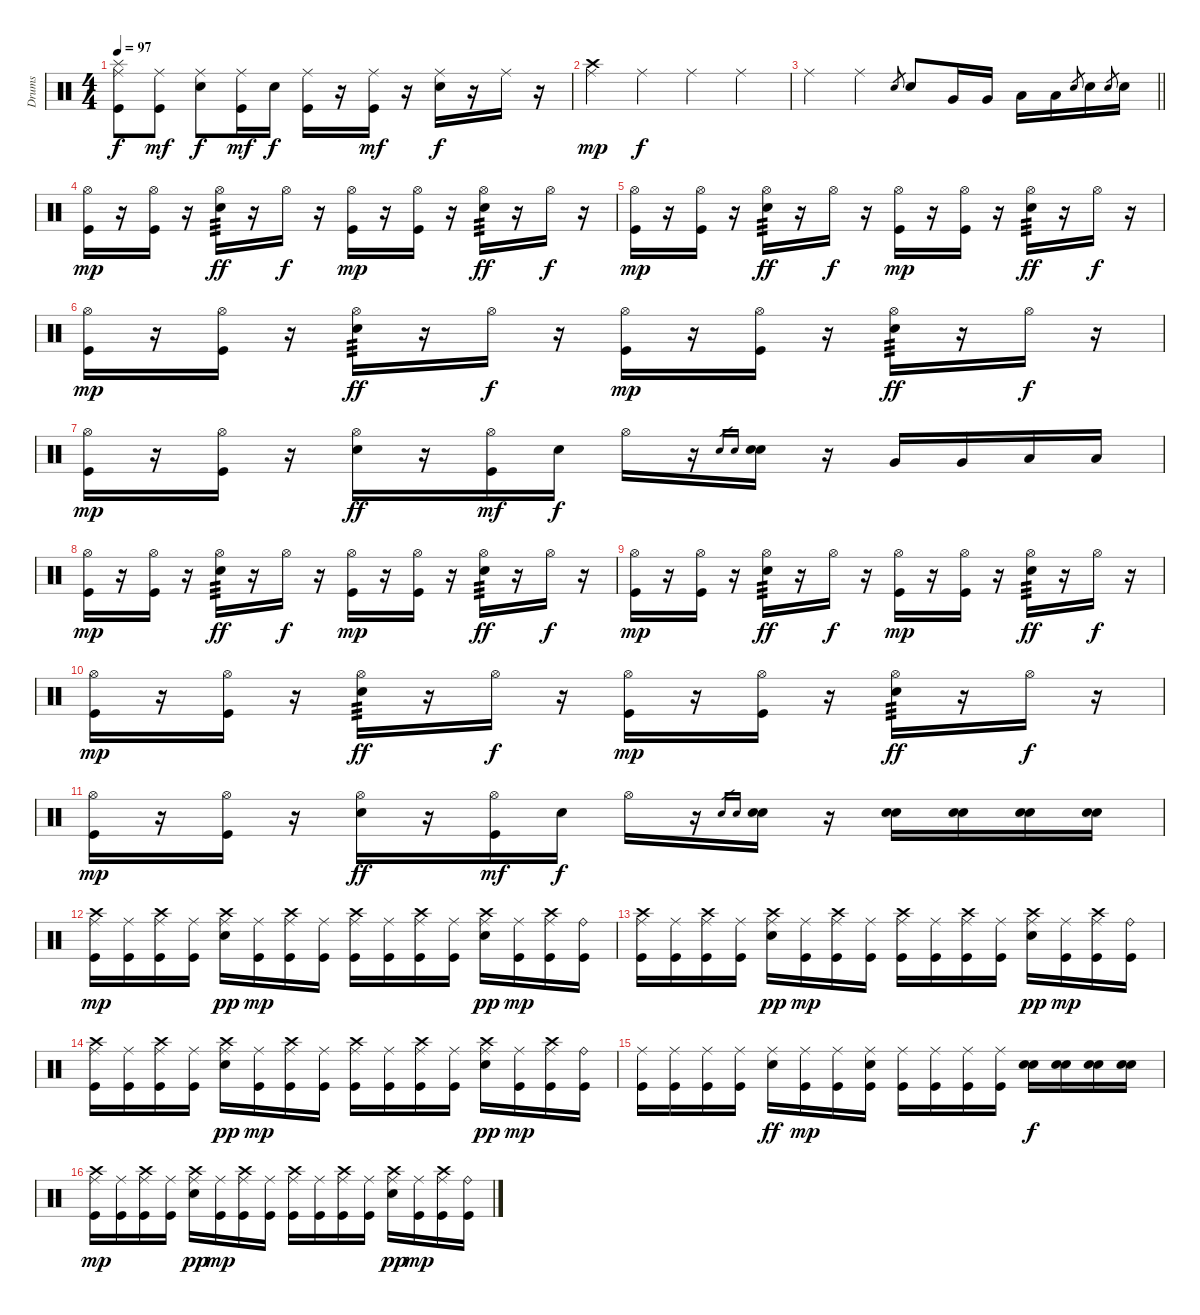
\track ("Drums" "Drums") {instrument percussion}
\staff {score}
\articulation defaults
\ts (4 4)
\tempo 97
\clef neutral
\ks c
("Ride (middle)" "Splash (hit)" "Kick (hit)").8{dy f} ("Ride (middle)" "Kick (hit)").8{dy mf} ("Ride (middle)" "Electric Snare (hit)").8{dy f} ("Ride (middle)" "Kick (hit)").16{dy mf} "Electric Snare (hit)".16{dy f} ("Ride (middle)" "Kick (hit)").16 r.16 ("Ride (middle)" "Kick (hit)").16{dy mf} r.16 ("Ride (middle)" "Electric Snare (hit)").16{dy f} r.16 "Ride (middle)".16 r.16 |
("Crash high (hit)" "Ride (middle)").4{dy mp} "Ride (middle)".4{dy f} "Ride (middle)".4 "Ride (middle)".4 |
\barLineRight lightlight "Ride (middle)".4 "Ride (middle)".4 "Electric Snare (hit)".8{gr} "Electric Snare (hit)".8 "Very Low Tom (hit)".16 "Very Low Tom (hit)".16 "Low Tom (hit)".16 "Low Tom (hit)".16 "Electric Snare (hit)".8{gr} "Electric Snare (hit)".16 "Electric Snare (hit)".8{gr} "Electric Snare (hit)".16
|
("Hi-Hat (open)" "Kick (hit)").16{dy mp} r.16 ("Hi-Hat (open)" "Kick (hit)").16 r.16 ("Hi-Hat (open)" "Electric Snare (hit)").16{tp 3 dy ff} r.16 "Hi-Hat (open)".16{dy f} r.16 ("Hi-Hat (open)" "Kick (hit)").16{dy mp} r.16 ("Hi-Hat (open)" "Kick (hit)").16 r.16 ("Hi-Hat (open)" "Electric Snare (hit)").16{tp 3 dy ff} r.16 "Hi-Hat (open)".16{dy f} r.16 |
("Hi-Hat (open)" "Kick (hit)").16{dy mp} r.16 ("Hi-Hat (open)" "Kick (hit)").16 r.16 ("Hi-Hat (open)" "Electric Snare (hit)").16{tp 3 dy ff} r.16 "Hi-Hat (open)".16{dy f} r.16 ("Hi-Hat (open)" "Kick (hit)").16{dy mp} r.16 ("Hi-Hat (open)" "Kick (hit)").16 r.16 ("Hi-Hat (open)" "Electric Snare (hit)").16{tp 3 dy ff} r.16 "Hi-Hat (open)".16{dy f} r.16 |
("Hi-Hat (open)" "Kick (hit)").16{dy mp} r.16 ("Hi-Hat (open)" "Kick (hit)").16 r.16 ("Hi-Hat (open)" "Electric Snare (hit)").16{tp 3 dy ff} r.16 "Hi-Hat (open)".16{dy f} r.16 ("Hi-Hat (open)" "Kick (hit)").16{dy mp} r.16 ("Hi-Hat (open)" "Kick (hit)").16 r.16 ("Hi-Hat (open)" "Electric Snare (hit)").16{tp 3 dy ff} r.16 "Hi-Hat (open)".16{dy f} r.16 |
("Hi-Hat (open)" "Kick (hit)").16{dy mp} r.16 ("Hi-Hat (open)" "Kick (hit)").16 r.16 ("Hi-Hat (open)" "Electric Snare (hit)").16{dy ff} r.16 ("Hi-Hat (open)" "Kick (hit)").16{dy mf} "Electric Snare (hit)".16{dy f} "Hi-Hat (open)".16 r.16 "Electric Snare (hit)".16{gr} "Electric Snare (hit)".16{gr} ("Electric Snare (hit)" "Electric Snare (hit)").16 r.16 "Very Low Tom (hit)".16 "Very Low Tom (hit)".16 "Low Tom (hit)".16 "Low Tom (hit)".16 |
("Hi-Hat (open)" "Kick (hit)").16{dy mp} r.16 ("Hi-Hat (open)" "Kick (hit)").16 r.16 ("Hi-Hat (open)" "Electric Snare (hit)").16{tp 3 dy ff} r.16 "Hi-Hat (open)".16{dy f} r.16 ("Hi-Hat (open)" "Kick (hit)").16{dy mp} r.16 ("Hi-Hat (open)" "Kick (hit)").16 r.16 ("Hi-Hat (open)" "Electric Snare (hit)").16{tp 3 dy ff} r.16 "Hi-Hat (open)".16{dy f} r.16 |
("Hi-Hat (open)" "Kick (hit)").16{dy mp} r.16 ("Hi-Hat (open)" "Kick (hit)").16 r.16 ("Hi-Hat (open)" "Electric Snare (hit)").16{tp 3 dy ff} r.16 "Hi-Hat (open)".16{dy f} r.16 ("Hi-Hat (open)" "Kick (hit)").16{dy mp} r.16 ("Hi-Hat (open)" "Kick (hit)").16 r.16 ("Hi-Hat (open)" "Electric Snare (hit)").16{tp 3 dy ff} r.16 "Hi-Hat (open)".16{dy f} r.16 |
("Hi-Hat (open)" "Kick (hit)").16{dy mp} r.16 ("Hi-Hat (open)" "Kick (hit)").16 r.16 ("Hi-Hat (open)" "Electric Snare (hit)").16{tp 3 dy ff} r.16 "Hi-Hat (open)".16{dy f} r.16 ("Hi-Hat (open)" "Kick (hit)").16{dy mp} r.16 ("Hi-Hat (open)" "Kick (hit)").16 r.16 ("Hi-Hat (open)" "Electric Snare (hit)").16{tp 3 dy ff} r.16 "Hi-Hat (open)".16{dy f} r.16 |
("Hi-Hat (open)" "Kick (hit)").16{dy mp} r.16 ("Hi-Hat (open)" "Kick (hit)").16 r.16 ("Hi-Hat (open)" "Electric Snare (hit)").16{dy ff} r.16 ("Hi-Hat (open)" "Kick (hit)").16{dy mf} "Electric Snare (hit)".16{dy f} "Hi-Hat (open)".16 r.16 "Electric Snare (hit)".16{gr} "Electric Snare (hit)".16{gr} ("Electric Snare (hit)" "Electric Snare (hit)").16 r.16 ("Electric Snare (hit)" "Electric Snare (hit)").16 ("Electric Snare (hit)" "Electric Snare (hit)").16 ("Electric Snare (hit)" "Electric Snare (hit)").16 ("Electric Snare (hit)" "Electric Snare (hit)").16 |
("Ride (middle)" "Crash high (hit)" "Kick (hit)").16{dy mp} ("Ride (middle)" "Kick (hit)").16 ("Ride (middle)" "Crash high (hit)" "Kick (hit)").16 ("Ride (middle)" "Kick (hit)").16 ("Ride (middle)" "Electric Snare (hit)" "Crash high (hit)").16{dy pp} ("Ride (middle)" "Kick (hit)").16{dy mp} ("Ride (middle)" "Crash high (hit)" "Kick (hit)").16 ("Ride (middle)" "Kick (hit)").16 ("Ride (middle)" "Crash high (hit)" "Kick (hit)").16 ("Ride (middle)" "Kick (hit)").16 ("Ride (middle)" "Crash high (hit)" "Kick (hit)").16 ("Ride (middle)" "Kick (hit)").16 ("Ride (middle)" "Electric Snare (hit)" "Crash high (hit)").16{dy pp} ("Ride (middle)" "Kick (hit)").16{dy mp} ("Ride (middle)" "Crash high (hit)" "Kick (hit)").16 ("Ride (bell)" "Kick (hit)").16 |
("Ride (middle)" "Crash high (hit)" "Kick (hit)").16 ("Ride (middle)" "Kick (hit)").16 ("Ride (middle)" "Crash high (hit)" "Kick (hit)").16 ("Ride (middle)" "Kick (hit)").16 ("Ride (middle)" "Electric Snare (hit)" "Crash high (hit)").16{dy pp} ("Ride (middle)" "Kick (hit)").16{dy mp} ("Ride (middle)" "Crash high (hit)" "Kick (hit)").16 ("Ride (middle)" "Kick (hit)").16 ("Ride (middle)" "Crash high (hit)" "Kick (hit)").16 ("Ride (middle)" "Kick (hit)").16 ("Ride (middle)" "Crash high (hit)" "Kick (hit)").16 ("Ride (middle)" "Kick (hit)").16 ("Ride (middle)" "Electric Snare (hit)" "Crash high (hit)").16{dy pp} ("Ride (middle)" "Kick (hit)").16{dy mp} ("Ride (middle)" "Crash high (hit)" "Kick (hit)").16 ("Ride (bell)" "Kick (hit)").16 |
("Ride (middle)" "Crash high (hit)" "Kick (hit)").16 ("Ride (middle)" "Kick (hit)").16 ("Ride (middle)" "Crash high (hit)" "Kick (hit)").16 ("Ride (middle)" "Kick (hit)").16 ("Ride (middle)" "Electric Snare (hit)" "Crash high (hit)").16{dy pp} ("Ride (middle)" "Kick (hit)").16{dy mp} ("Ride (middle)" "Crash high (hit)" "Kick (hit)").16 ("Ride (middle)" "Kick (hit)").16 ("Ride (middle)" "Crash high (hit)" "Kick (hit)").16 ("Ride (middle)" "Kick (hit)").16 ("Ride (middle)" "Crash high (hit)" "Kick (hit)").16 ("Ride (middle)" "Kick (hit)").16 ("Ride (middle)" "Electric Snare (hit)" "Crash high (hit)").16{dy pp} ("Ride (middle)" "Kick (hit)").16{dy mp} ("Ride (middle)" "Crash high (hit)" "Kick (hit)").16 ("Ride (bell)" "Kick (hit)").16 |
("Ride (middle)" "Kick (hit)").16 ("Ride (middle)" "Kick (hit)").16 ("Ride (middle)" "Kick (hit)").16 ("Ride (middle)" "Kick (hit)").16 ("Ride (middle)" "Electric Snare (hit)").16{dy ff} ("Ride (middle)" "Kick (hit)").16{dy mp} ("Ride (middle)" "Kick (hit)").16 ("Ride (middle)" "Electric Snare (hit)" "Kick (hit)").16 ("Ride (middle)" "Kick (hit)").16 ("Ride (middle)" "Kick (hit)").16 ("Ride (middle)" "Kick (hit)").16 ("Ride (middle)" "Kick (hit)").16 ("Electric Snare (hit)" "Electric Snare (hit)").16{dy f} ("Electric Snare (hit)" "Electric Snare (hit)").16 ("Electric Snare (hit)" "Electric Snare (hit)").16 ("Electric Snare (hit)" "Electric Snare (hit)").16 |
("Ride (middle)" "Crash high (hit)" "Kick (hit)").16{dy mp} ("Ride (middle)" "Kick (hit)").16 ("Ride (middle)" "Crash high (hit)" "Kick (hit)").16 ("Ride (middle)" "Kick (hit)").16 ("Ride (middle)" "Electric Snare (hit)" "Crash high (hit)").16{dy pp} ("Ride (middle)" "Kick (hit)").16{dy mp} ("Ride (middle)" "Crash high (hit)" "Kick (hit)").16 ("Ride (middle)" "Kick (hit)").16 ("Ride (middle)" "Crash high (hit)" "Kick (hit)").16 ("Ride (middle)" "Kick (hit)").16 ("Ride (middle)" "Crash high (hit)" "Kick (hit)").16 ("Ride (middle)" "Kick (hit)").16 ("Ride (middle)" "Electric Snare (hit)" "Crash high (hit)").16{dy pp} ("Ride (middle)" "Kick (hit)").16{dy mp} ("Ride (middle)" "Crash high (hit)" "Kick (hit)").16 ("Ride (bell)" "Kick (hit)").16
